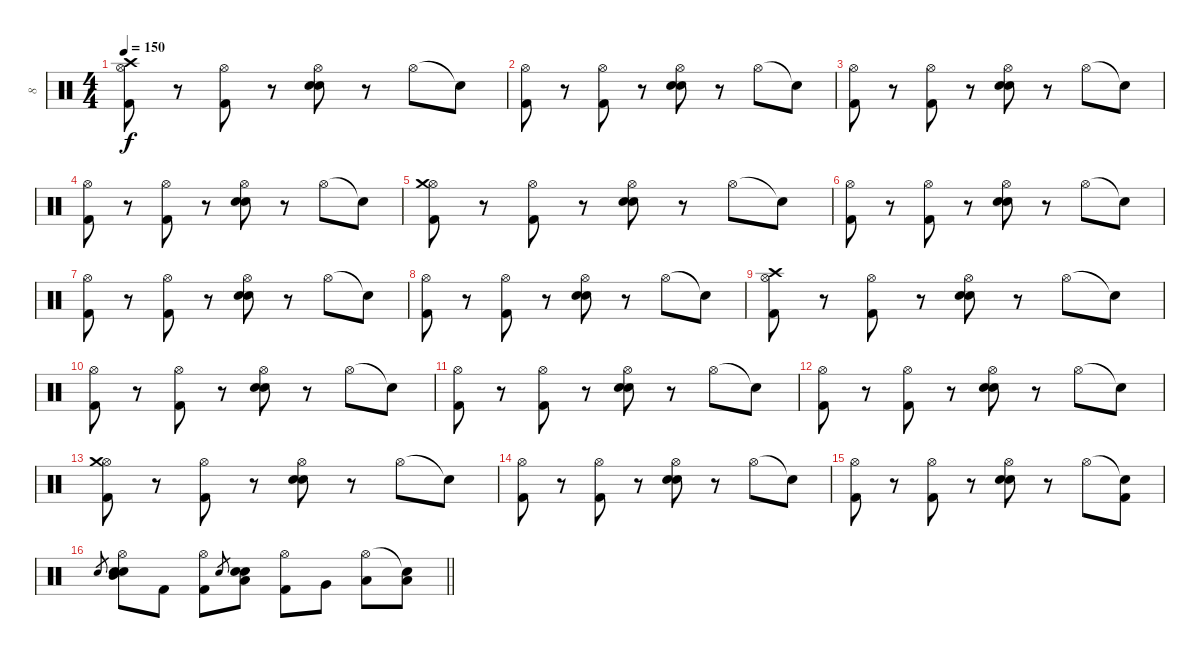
\track ("8" "8") {instrument percussion}
\staff {score}
\articulation defaults
\ts (4 4)
\tempo 150
\clef neutral
\ks c
("Hi-Hat (open)" "Crash high (hit)" "Kick (hit) 2").8{dy f} r.8 ("Hi-Hat (open)" "Kick (hit) 2").8 r.8 ("Hi-Hat (open)" "Snare (hit) 2" "Electric Snare (hit)").8 r.8 "Hi-Hat (open)".8 "Snare (hit)"{t}.8 |
("Hi-Hat (open)" "Kick (hit) 2").8 r.8 ("Hi-Hat (open)" "Kick (hit) 2").8 r.8 ("Hi-Hat (open)" "Snare (hit) 2" "Electric Snare (hit)").8 r.8 "Hi-Hat (open)".8 "Snare (hit)"{t}.8 |
("Hi-Hat (open)" "Kick (hit) 2").8 r.8 ("Hi-Hat (open)" "Kick (hit) 2").8 r.8 ("Hi-Hat (open)" "Snare (hit) 2" "Electric Snare (hit)").8 r.8 "Hi-Hat (open)".8 "Snare (hit)"{t}.8 |
("Hi-Hat (open)" "Kick (hit) 2").8 r.8 ("Hi-Hat (open)" "Kick (hit) 2").8 r.8 ("Hi-Hat (open)" "Snare (hit) 2" "Electric Snare (hit)").8 r.8 "Hi-Hat (open)".8 "Snare (hit)"{t}.8 |
("Hi-Hat (open)" "Crash medium (hit)" "Kick (hit) 2").8 r.8 ("Hi-Hat (open)" "Kick (hit) 2").8 r.8 ("Hi-Hat (open)" "Snare (hit) 2" "Electric Snare (hit)").8 r.8 "Hi-Hat (open)".8 "Snare (hit)"{t}.8 |
("Hi-Hat (open)" "Kick (hit) 2").8 r.8 ("Hi-Hat (open)" "Kick (hit) 2").8 r.8 ("Hi-Hat (open)" "Snare (hit) 2" "Electric Snare (hit)").8 r.8 "Hi-Hat (open)".8 "Snare (hit)"{t}.8 |
("Hi-Hat (open)" "Kick (hit) 2").8 r.8 ("Hi-Hat (open)" "Kick (hit) 2").8 r.8 ("Hi-Hat (open)" "Snare (hit) 2" "Electric Snare (hit)").8 r.8 "Hi-Hat (open)".8 "Snare (hit)"{t}.8 |
("Hi-Hat (open)" "Kick (hit) 2").8 r.8 ("Hi-Hat (open)" "Kick (hit) 2").8 r.8 ("Hi-Hat (open)" "Snare (hit) 2" "Electric Snare (hit)").8 r.8 "Hi-Hat (open)".8 "Snare (hit)"{t}.8 |
("Hi-Hat (open)" "Crash high (hit)" "Kick (hit) 2").8 r.8 ("Hi-Hat (open)" "Kick (hit) 2").8 r.8 ("Hi-Hat (open)" "Snare (hit) 2" "Electric Snare (hit)").8 r.8 "Hi-Hat (open)".8 "Snare (hit)"{t}.8 |
("Hi-Hat (open)" "Kick (hit) 2").8 r.8 ("Hi-Hat (open)" "Kick (hit) 2").8 r.8 ("Hi-Hat (open)" "Snare (hit) 2" "Electric Snare (hit)").8 r.8 "Hi-Hat (open)".8 "Snare (hit)"{t}.8 |
("Hi-Hat (open)" "Kick (hit) 2").8 r.8 ("Hi-Hat (open)" "Kick (hit) 2").8 r.8 ("Hi-Hat (open)" "Snare (hit) 2" "Electric Snare (hit)").8 r.8 "Hi-Hat (open)".8 "Snare (hit)"{t}.8 |
("Hi-Hat (open)" "Kick (hit) 2").8 r.8 ("Hi-Hat (open)" "Kick (hit) 2").8 r.8 ("Hi-Hat (open)" "Snare (hit) 2" "Electric Snare (hit)").8 r.8 "Hi-Hat (open)".8 "Snare (hit)"{t}.8 |
("Hi-Hat (open)" "Crash medium (hit)" "Kick (hit) 2").8 r.8 ("Hi-Hat (open)" "Kick (hit) 2").8 r.8 ("Hi-Hat (open)" "Snare (hit) 2" "Electric Snare (hit)").8 r.8 "Hi-Hat (open)".8 "Snare (hit)"{t}.8 |
("Hi-Hat (open)" "Kick (hit) 2").8 r.8 ("Hi-Hat (open)" "Kick (hit) 2").8 r.8 ("Hi-Hat (open)" "Snare (hit) 2" "Electric Snare (hit)").8 r.8 "Hi-Hat (open)".8 "Snare (hit)"{t}.8 |
("Hi-Hat (open)" "Kick (hit) 2").8 r.8 ("Hi-Hat (open)" "Kick (hit) 2").8 r.8 ("Hi-Hat (open)" "Snare (hit) 2" "Electric Snare (hit)").8 r.8 "Hi-Hat (open)".8 ("Snare (hit)"{t} "Kick (hit) 2").8 |
\barLineRight lightlight "Electric Snare (hit)".8{gr}
("Mid Tom (hit)" "Hi-Hat (open)" "Snare (hit) 2" "Electric Snare (hit)").8 "Kick (hit) 2".8 ("Hi-Hat (open)" "Kick (hit) 2").8 "Electric Snare (hit)".8{gr} ("Low Tom (hit)" "Snare (hit) 2" "Electric Snare (hit)").8 ("Hi-Hat (open)" "Kick (hit) 2").8 "Very Low Tom (hit)".8 ("Hi-Hat (open)" "Low Floor Tom (hit)").8 ("Snare (hit)"{t} "Low Floor Tom (hit)").8
